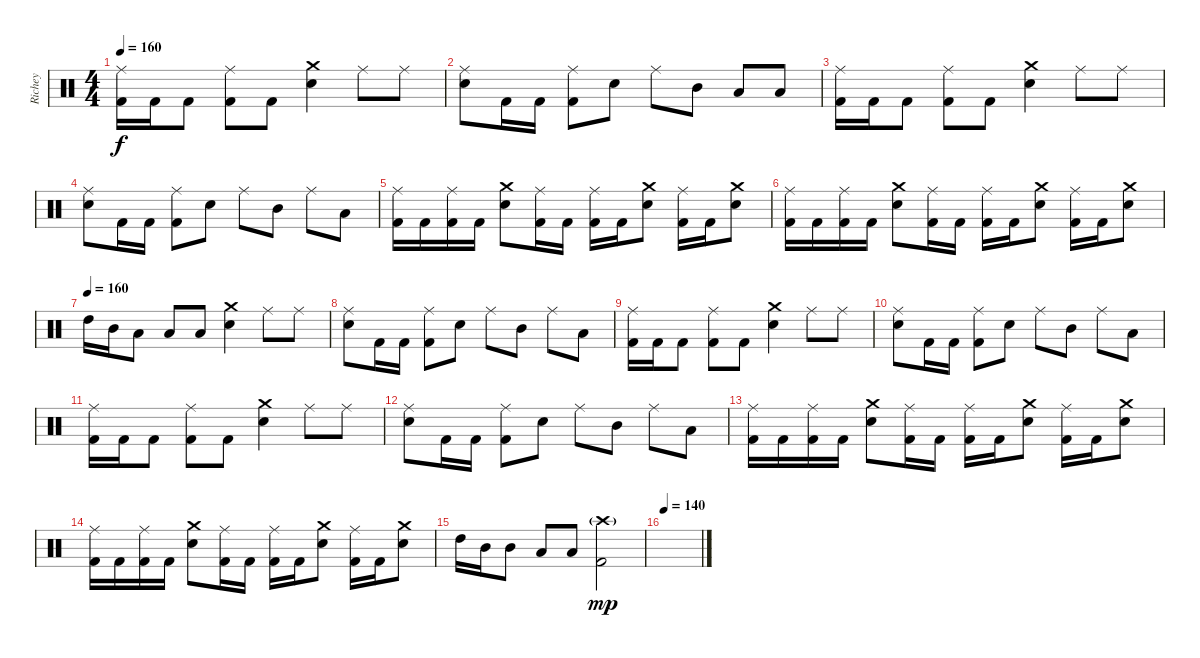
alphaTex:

\track ("Richey" "Richey") {instrument percussion}
\staff {score}
\articulation defaults
\ts (4 4)
\tempo 160
\clef neutral
\ks c
("Ride (middle)" "Kick (hit) 2").16{dy f} "Kick (hit) 2".16 "Kick (hit) 2".8 ("Ride (middle)" "Kick (hit) 2").8 "Kick (hit) 2".8 ("Crash medium (hit)" "Snare (hit) 2").4 "Ride (middle)".8 "Ride (middle)".8 |
("Ride (middle)" "Snare (hit) 2").8 "Kick (hit) 2".16 "Kick (hit) 2".16 ("Ride (middle)" "Kick (hit) 2").8 "Snare (hit) 2".8 "Ride (middle)".8 "Mid Tom (hit)".8 "Low Tom (hit)".8 "Low Tom (hit)".8 |
("Ride (middle)" "Kick (hit) 2").16 "Kick (hit) 2".16 "Kick (hit) 2".8 ("Ride (middle)" "Kick (hit) 2").8 "Kick (hit) 2".8 ("Crash medium (hit)" "Snare (hit) 2").4 "Ride (middle)".8 "Ride (middle)".8 |
("Ride (middle)" "Snare (hit) 2").8 "Kick (hit) 2".16 "Kick (hit) 2".16 ("Ride (middle)" "Kick (hit) 2").8 "Snare (hit) 2".8 "Ride (middle)".8 "Mid Tom (hit)".8 "Ride (middle)".8 "Low Tom (hit)".8 |
("Ride (middle)" "Kick (hit) 2").16 "Kick (hit) 2".16 ("Ride (middle)" "Kick (hit) 2").16 "Kick (hit) 2".16 ("Crash medium (hit)" "Snare (hit) 2").8 ("Ride (middle)" "Kick (hit) 2").16 "Kick (hit) 2".16 ("Ride (middle)" "Kick (hit) 2").16 "Kick (hit) 2".16 ("Crash medium (hit)" "Snare (hit) 2").8 ("Ride (middle)" "Kick (hit) 2").16 "Kick (hit) 2".16 ("Crash medium (hit)" "Snare (hit) 2").8 |
("Ride (middle)" "Kick (hit) 2").16 "Kick (hit) 2".16 ("Ride (middle)" "Kick (hit) 2").16 "Kick (hit) 2".16 ("Crash medium (hit)" "Snare (hit) 2").8 ("Ride (middle)" "Kick (hit) 2").16 "Kick (hit) 2".16 ("Ride (middle)" "Kick (hit) 2").16 "Kick (hit) 2".16 ("Crash medium (hit)" "Snare (hit) 2").8 ("Ride (middle)" "Kick (hit) 2").16 "Kick (hit) 2".16 ("Crash medium (hit)" "Snare (hit) 2").8 |
\tempo (160)
"High Tom (hit)".16 "Mid Tom (hit)".16 "Low Tom (hit)".8 "Low Tom (hit)".8 "Low Tom (hit)".8 ("Crash medium (hit)" "Snare (hit) 2").4 "Ride (middle)".8 "Ride (middle)".8 |
("Ride (middle)" "Snare (hit) 2").8 "Kick (hit) 2".16 "Kick (hit) 2".16 ("Ride (middle)" "Kick (hit) 2").8 "Snare (hit) 2".8 "Ride (middle)".8 "Mid Tom (hit)".8 "Ride (middle)".8 "Low Tom (hit)".8 |
("Ride (middle)" "Kick (hit) 2").16 "Kick (hit) 2".16 "Kick (hit) 2".8 ("Ride (middle)" "Kick (hit) 2").8 "Kick (hit) 2".8 ("Crash medium (hit)" "Snare (hit) 2").4 "Ride (middle)".8 "Ride (middle)".8 |
("Ride (middle)" "Snare (hit) 2").8 "Kick (hit) 2".16 "Kick (hit) 2".16 ("Ride (middle)" "Kick (hit) 2").8 "Snare (hit) 2".8 "Ride (middle)".8 "Mid Tom (hit)".8 "Ride (middle)".8 "Low Tom (hit)".8 |
("Ride (middle)" "Kick (hit) 2").16 "Kick (hit) 2".16 "Kick (hit) 2".8 ("Ride (middle)" "Kick (hit) 2").8 "Kick (hit) 2".8 ("Crash medium (hit)" "Snare (hit) 2").4 "Ride (middle)".8 "Ride (middle)".8 |
("Ride (middle)" "Snare (hit) 2").8 "Kick (hit) 2".16 "Kick (hit) 2".16 ("Ride (middle)" "Kick (hit) 2").8 "Snare (hit) 2".8 "Ride (middle)".8 "Mid Tom (hit)".8 "Ride (middle)".8 "Low Tom (hit)".8 |
("Ride (middle)" "Kick (hit) 2").16 "Kick (hit) 2".16 ("Ride (middle)" "Kick (hit) 2").16 "Kick (hit) 2".16 ("Crash medium (hit)" "Snare (hit) 2").8 ("Ride (middle)" "Kick (hit) 2").16 "Kick (hit) 2".16 ("Ride (middle)" "Kick (hit) 2").16 "Kick (hit) 2".16 ("Crash medium (hit)" "Snare (hit) 2").8 ("Ride (middle)" "Kick (hit) 2").16 "Kick (hit) 2".16 ("Crash medium (hit)" "Snare (hit) 2").8 |
("Ride (middle)" "Kick (hit) 2").16 "Kick (hit) 2".16 ("Ride (middle)" "Kick (hit) 2").16 "Kick (hit) 2".16 ("Crash medium (hit)" "Snare (hit) 2").8 ("Ride (middle)" "Kick (hit) 2").16 "Kick (hit) 2".16 ("Ride (middle)" "Kick (hit) 2").16 "Kick (hit) 2".16 ("Crash medium (hit)" "Snare (hit) 2").8 ("Ride (middle)" "Kick (hit) 2").16 "Kick (hit) 2".16 ("Crash medium (hit)" "Snare (hit) 2").8 |
"High Tom (hit)".16 "Mid Tom (hit)".16 "Mid Tom (hit)".8 "Low Tom (hit)".8 "Low Tom (hit)".8 ("Crash high (hit)"{g} "Kick (hit) 2").2{dy mp} |
\tempo 140
